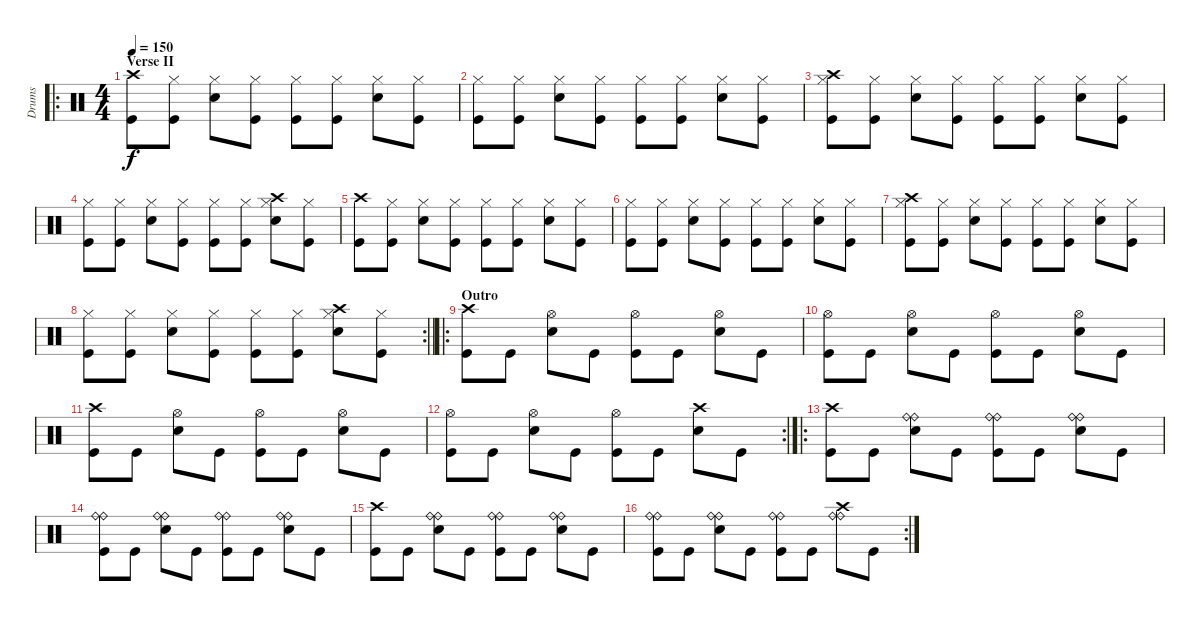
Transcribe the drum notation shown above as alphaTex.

\track ("Drums" "Drums") {instrument percussion}
\staff {score}
\articulation defaults
\ro
\ts (4 4)
\section ("" "Verse II")
\tempo 150
\clef neutral
\ks c
("Crash high (hit)" "Kick (hit)").8{dy f} ("Kick (hit)" "Hi-Hat (closed)").8 ("Electric Snare (hit)" "Hi-Hat (closed)").8 ("Kick (hit)" "Hi-Hat (closed)").8 ("Kick (hit)" "Hi-Hat (closed)").8 ("Kick (hit)" "Hi-Hat (closed)").8 ("Electric Snare (hit)" "Hi-Hat (closed)").8 ("Kick (hit)" "Hi-Hat (closed)").8 |
("Kick (hit)" "Hi-Hat (closed)").8 ("Kick (hit)" "Hi-Hat (closed)").8 ("Electric Snare (hit)" "Hi-Hat (closed)").8 ("Kick (hit)" "Hi-Hat (closed)").8 ("Kick (hit)" "Hi-Hat (closed)").8 ("Kick (hit)" "Hi-Hat (closed)").8 ("Electric Snare (hit)" "Hi-Hat (closed)").8 ("Kick (hit)" "Hi-Hat (closed)").8 |
("Crash high (hit)" "Kick (hit)" "Hi-Hat (closed)").8 ("Kick (hit)" "Hi-Hat (closed)").8 ("Electric Snare (hit)" "Hi-Hat (closed)").8 ("Kick (hit)" "Hi-Hat (closed)").8 ("Kick (hit)" "Hi-Hat (closed)").8 ("Kick (hit)" "Hi-Hat (closed)").8 ("Electric Snare (hit)" "Hi-Hat (closed)").8 ("Kick (hit)" "Hi-Hat (closed)").8 |
("Kick (hit)" "Hi-Hat (closed)").8 ("Kick (hit)" "Hi-Hat (closed)").8 ("Electric Snare (hit)" "Hi-Hat (closed)").8 ("Kick (hit)" "Hi-Hat (closed)").8 ("Kick (hit)" "Hi-Hat (closed)").8 ("Kick (hit)" "Hi-Hat (closed)").8 ("Crash high (hit)" "Electric Snare (hit)" "Hi-Hat (closed)").8 ("Kick (hit)" "Hi-Hat (closed)").8 |
("Crash high (hit)" "Kick (hit)").8 ("Kick (hit)" "Hi-Hat (closed)").8 ("Electric Snare (hit)" "Hi-Hat (closed)").8 ("Kick (hit)" "Hi-Hat (closed)").8 ("Kick (hit)" "Hi-Hat (closed)").8 ("Kick (hit)" "Hi-Hat (closed)").8 ("Electric Snare (hit)" "Hi-Hat (closed)").8 ("Kick (hit)" "Hi-Hat (closed)").8 |
("Kick (hit)" "Hi-Hat (closed)").8 ("Kick (hit)" "Hi-Hat (closed)").8 ("Electric Snare (hit)" "Hi-Hat (closed)").8 ("Kick (hit)" "Hi-Hat (closed)").8 ("Kick (hit)" "Hi-Hat (closed)").8 ("Kick (hit)" "Hi-Hat (closed)").8 ("Electric Snare (hit)" "Hi-Hat (closed)").8 ("Kick (hit)" "Hi-Hat (closed)").8 |
("Crash high (hit)" "Kick (hit)" "Hi-Hat (closed)").8 ("Kick (hit)" "Hi-Hat (closed)").8 ("Electric Snare (hit)" "Hi-Hat (closed)").8 ("Kick (hit)" "Hi-Hat (closed)").8 ("Kick (hit)" "Hi-Hat (closed)").8 ("Kick (hit)" "Hi-Hat (closed)").8 ("Electric Snare (hit)" "Hi-Hat (closed)").8 ("Kick (hit)" "Hi-Hat (closed)").8 |
\rc 2
\barLineRight lightlight
("Kick (hit)" "Hi-Hat (closed)").8 ("Kick (hit)" "Hi-Hat (closed)").8 ("Electric Snare (hit)" "Hi-Hat (closed)").8 ("Kick (hit)" "Hi-Hat (closed)").8 ("Kick (hit)" "Hi-Hat (closed)").8 ("Kick (hit)" "Hi-Hat (closed)").8 ("Crash high (hit)" "Electric Snare (hit)" "Hi-Hat (closed)").8 ("Kick (hit)" "Hi-Hat (closed)").8 |
\ro
\section ("" "Outro")
("Crash high (hit)" "Kick (hit)").8 "Kick (hit)".8 ("Electric Snare (hit)" "Hi-Hat (open)").8 "Kick (hit)".8 ("Kick (hit)" "Hi-Hat (open)").8 "Kick (hit)".8 ("Electric Snare (hit)" "Hi-Hat (open)").8 "Kick (hit)".8 |
("Kick (hit)" "Hi-Hat (open)").8 "Kick (hit)".8 ("Electric Snare (hit)" "Hi-Hat (open)").8 "Kick (hit)".8 ("Kick (hit)" "Hi-Hat (open)").8 "Kick (hit)".8 ("Electric Snare (hit)" "Hi-Hat (open)").8 "Kick (hit)".8 |
("Crash high (hit)" "Kick (hit)").8 "Kick (hit)".8 ("Electric Snare (hit)" "Hi-Hat (open)").8 "Kick (hit)".8 ("Kick (hit)" "Hi-Hat (open)").8 "Kick (hit)".8 ("Electric Snare (hit)" "Hi-Hat (open)").8 "Kick (hit)".8 |
\rc 2
("Kick (hit)" "Hi-Hat (open)").8 "Kick (hit)".8 ("Electric Snare (hit)" "Hi-Hat (open)").8 "Kick (hit)".8 ("Kick (hit)" "Hi-Hat (open)").8 "Kick (hit)".8 ("Crash high (hit)" "Electric Snare (hit)").8 "Kick (hit)".8 |
\ro
("Crash high (hit)" "Kick (hit)").8 "Kick (hit)".8 ("Electric Snare (hit)" "Ride (bell)" "Ride (bell)").8 "Kick (hit)".8 ("Kick (hit)" "Ride (bell)" "Ride (bell)").8 "Kick (hit)".8 ("Electric Snare (hit)" "Ride (bell)" "Ride (bell)").8 "Kick (hit)".8 |
("Kick (hit)" "Ride (bell)" "Ride (bell)").8 "Kick (hit)".8 ("Electric Snare (hit)" "Ride (bell)" "Ride (bell)").8 "Kick (hit)".8 ("Kick (hit)" "Ride (bell)" "Ride (bell)").8 "Kick (hit)".8 ("Electric Snare (hit)" "Ride (bell)" "Ride (bell)").8 "Kick (hit)".8 |
("Crash high (hit)" "Kick (hit)").8 "Kick (hit)".8 ("Electric Snare (hit)" "Ride (bell)" "Ride (bell)").8 "Kick (hit)".8 ("Kick (hit)" "Ride (bell)" "Ride (bell)").8 "Kick (hit)".8 ("Electric Snare (hit)" "Ride (bell)" "Ride (bell)").8 "Kick (hit)".8 |
\rc 2
("Kick (hit)" "Ride (bell)" "Ride (bell)").8 "Kick (hit)".8 ("Electric Snare (hit)" "Ride (bell)" "Ride (bell)").8 "Kick (hit)".8 ("Kick (hit)" "Ride (bell)" "Ride (bell)").8 "Kick (hit)".8 ("Crash high (hit)" "Ride (bell)" "Ride (bell)").8 "Kick (hit)".8
